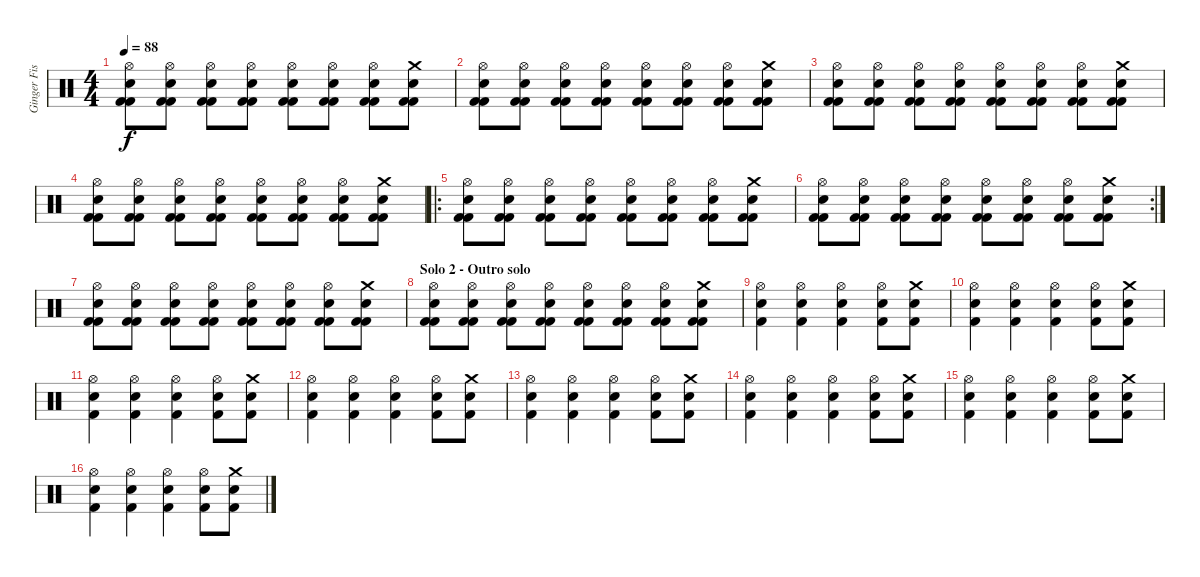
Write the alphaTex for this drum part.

\track ("Ginger Fish (Drums)" "Ginger Fis") {instrument percussion}
\staff {score}
\articulation defaults
\ts (4 4)
\tempo 88
\clef neutral
\ks c
("Hi-Hat (open)" "Snare (hit) 2" "Kick (hit) 2" "Kick (hit) 2").8{dy f} ("Hi-Hat (open)" "Electric Snare (hit)" "Kick (hit) 2" "Kick (hit) 2").8 ("Hi-Hat (open)" "Snare (hit) 2" "Kick (hit) 2" "Kick (hit) 2").8 ("Hi-Hat (open)" "Electric Snare (hit)" "Kick (hit) 2" "Kick (hit) 2").8 ("Hi-Hat (open)" "Snare (hit) 2" "Kick (hit) 2" "Kick (hit) 2").8 ("Hi-Hat (open)" "Electric Snare (hit)" "Kick (hit) 2" "Kick (hit) 2").8 ("Hi-Hat (open)" "Snare (hit) 2" "Kick (hit) 2" "Kick (hit) 2").8 ("Crash medium (hit)" "Electric Snare (hit)" "Kick (hit) 2" "Kick (hit) 2").8 |
("Hi-Hat (open)" "Snare (hit) 2" "Kick (hit) 2" "Kick (hit) 2").8 ("Hi-Hat (open)" "Electric Snare (hit)" "Kick (hit) 2" "Kick (hit) 2").8 ("Hi-Hat (open)" "Snare (hit) 2" "Kick (hit) 2" "Kick (hit) 2").8 ("Hi-Hat (open)" "Electric Snare (hit)" "Kick (hit) 2" "Kick (hit) 2").8 ("Hi-Hat (open)" "Snare (hit) 2" "Kick (hit) 2" "Kick (hit) 2").8 ("Hi-Hat (open)" "Electric Snare (hit)" "Kick (hit) 2" "Kick (hit) 2").8 ("Hi-Hat (open)" "Snare (hit) 2" "Kick (hit) 2" "Kick (hit) 2").8 ("Crash medium (hit)" "Electric Snare (hit)" "Kick (hit) 2" "Kick (hit) 2").8 |
("Hi-Hat (open)" "Snare (hit) 2" "Kick (hit) 2" "Kick (hit) 2").8 ("Hi-Hat (open)" "Electric Snare (hit)" "Kick (hit) 2" "Kick (hit) 2").8 ("Hi-Hat (open)" "Snare (hit) 2" "Kick (hit) 2" "Kick (hit) 2").8 ("Hi-Hat (open)" "Electric Snare (hit)" "Kick (hit) 2" "Kick (hit) 2").8 ("Hi-Hat (open)" "Snare (hit) 2" "Kick (hit) 2" "Kick (hit) 2").8 ("Hi-Hat (open)" "Electric Snare (hit)" "Kick (hit) 2" "Kick (hit) 2").8 ("Hi-Hat (open)" "Snare (hit) 2" "Kick (hit) 2" "Kick (hit) 2").8 ("Crash medium (hit)" "Electric Snare (hit)" "Kick (hit) 2" "Kick (hit) 2").8 |
("Hi-Hat (open)" "Snare (hit) 2" "Kick (hit) 2" "Kick (hit) 2").8 ("Hi-Hat (open)" "Electric Snare (hit)" "Kick (hit) 2" "Kick (hit) 2").8 ("Hi-Hat (open)" "Snare (hit) 2" "Kick (hit) 2" "Kick (hit) 2").8 ("Hi-Hat (open)" "Electric Snare (hit)" "Kick (hit) 2" "Kick (hit) 2").8 ("Hi-Hat (open)" "Snare (hit) 2" "Kick (hit) 2" "Kick (hit) 2").8 ("Hi-Hat (open)" "Electric Snare (hit)" "Kick (hit) 2" "Kick (hit) 2").8 ("Hi-Hat (open)" "Snare (hit) 2" "Kick (hit) 2" "Kick (hit) 2").8 ("Crash medium (hit)" "Electric Snare (hit)" "Kick (hit) 2" "Kick (hit) 2").8 |
\ro
("Hi-Hat (open)" "Snare (hit) 2" "Kick (hit) 2" "Kick (hit) 2").8 ("Hi-Hat (open)" "Electric Snare (hit)" "Kick (hit) 2" "Kick (hit) 2").8 ("Hi-Hat (open)" "Snare (hit) 2" "Kick (hit) 2" "Kick (hit) 2").8 ("Hi-Hat (open)" "Electric Snare (hit)" "Kick (hit) 2" "Kick (hit) 2").8 ("Hi-Hat (open)" "Snare (hit) 2" "Kick (hit) 2" "Kick (hit) 2").8 ("Hi-Hat (open)" "Electric Snare (hit)" "Kick (hit) 2" "Kick (hit) 2").8 ("Hi-Hat (open)" "Snare (hit) 2" "Kick (hit) 2" "Kick (hit) 2").8 ("Crash medium (hit)" "Electric Snare (hit)" "Kick (hit) 2" "Kick (hit) 2").8 |
\rc 2
("Hi-Hat (open)" "Snare (hit) 2" "Kick (hit) 2" "Kick (hit) 2").8 ("Hi-Hat (open)" "Electric Snare (hit)" "Kick (hit) 2" "Kick (hit) 2").8 ("Hi-Hat (open)" "Snare (hit) 2" "Kick (hit) 2" "Kick (hit) 2").8 ("Hi-Hat (open)" "Electric Snare (hit)" "Kick (hit) 2" "Kick (hit) 2").8 ("Hi-Hat (open)" "Snare (hit) 2" "Kick (hit) 2" "Kick (hit) 2").8 ("Hi-Hat (open)" "Electric Snare (hit)" "Kick (hit) 2" "Kick (hit) 2").8 ("Hi-Hat (open)" "Snare (hit) 2" "Kick (hit) 2" "Kick (hit) 2").8 ("Crash medium (hit)" "Electric Snare (hit)" "Kick (hit) 2" "Kick (hit) 2").8 |
("Hi-Hat (open)" "Snare (hit) 2" "Kick (hit) 2" "Kick (hit) 2").8 ("Hi-Hat (open)" "Electric Snare (hit)" "Kick (hit) 2" "Kick (hit) 2").8 ("Hi-Hat (open)" "Snare (hit) 2" "Kick (hit) 2" "Kick (hit) 2").8 ("Hi-Hat (open)" "Electric Snare (hit)" "Kick (hit) 2" "Kick (hit) 2").8 ("Hi-Hat (open)" "Snare (hit) 2" "Kick (hit) 2" "Kick (hit) 2").8 ("Hi-Hat (open)" "Electric Snare (hit)" "Kick (hit) 2" "Kick (hit) 2").8 ("Hi-Hat (open)" "Snare (hit) 2" "Kick (hit) 2" "Kick (hit) 2").8 ("Crash medium (hit)" "Electric Snare (hit)" "Kick (hit) 2" "Kick (hit) 2").8 |
\section ("" "Solo 2 - Outro solo")
("Hi-Hat (open)" "Snare (hit) 2" "Kick (hit) 2" "Kick (hit) 2").8 ("Hi-Hat (open)" "Electric Snare (hit)" "Kick (hit) 2" "Kick (hit) 2").8 ("Hi-Hat (open)" "Snare (hit) 2" "Kick (hit) 2" "Kick (hit) 2").8 ("Hi-Hat (open)" "Electric Snare (hit)" "Kick (hit) 2" "Kick (hit) 2").8 ("Hi-Hat (open)" "Snare (hit) 2" "Kick (hit) 2" "Kick (hit) 2").8 ("Hi-Hat (open)" "Electric Snare (hit)" "Kick (hit) 2" "Kick (hit) 2").8 ("Hi-Hat (open)" "Snare (hit) 2" "Kick (hit) 2" "Kick (hit) 2").8 ("Crash medium (hit)" "Electric Snare (hit)" "Kick (hit) 2" "Kick (hit) 2").8 |
("Hi-Hat (open)" "Snare (hit) 2" "Kick (hit) 2").4 ("Hi-Hat (open)" "Snare (hit) 2" "Kick (hit) 2").4 ("Hi-Hat (open)" "Snare (hit) 2" "Kick (hit) 2").4 ("Hi-Hat (open)" "Snare (hit) 2" "Kick (hit) 2").8 ("Crash medium (hit)" "Electric Snare (hit)" "Kick (hit) 2").8 |
("Hi-Hat (open)" "Snare (hit) 2" "Kick (hit) 2").4 ("Hi-Hat (open)" "Snare (hit) 2" "Kick (hit) 2").4 ("Hi-Hat (open)" "Snare (hit) 2" "Kick (hit) 2").4 ("Hi-Hat (open)" "Snare (hit) 2" "Kick (hit) 2").8 ("Crash medium (hit)" "Electric Snare (hit)" "Kick (hit) 2").8 |
("Hi-Hat (open)" "Snare (hit) 2" "Kick (hit) 2").4 ("Hi-Hat (open)" "Snare (hit) 2" "Kick (hit) 2").4 ("Hi-Hat (open)" "Snare (hit) 2" "Kick (hit) 2").4 ("Hi-Hat (open)" "Snare (hit) 2" "Kick (hit) 2").8 ("Crash medium (hit)" "Electric Snare (hit)" "Kick (hit) 2").8 |
("Hi-Hat (open)" "Snare (hit) 2" "Kick (hit) 2").4 ("Hi-Hat (open)" "Snare (hit) 2" "Kick (hit) 2").4 ("Hi-Hat (open)" "Snare (hit) 2" "Kick (hit) 2").4 ("Hi-Hat (open)" "Snare (hit) 2" "Kick (hit) 2").8 ("Crash medium (hit)" "Electric Snare (hit)" "Kick (hit) 2").8 |
("Hi-Hat (open)" "Snare (hit) 2" "Kick (hit) 2").4 ("Hi-Hat (open)" "Snare (hit) 2" "Kick (hit) 2").4 ("Hi-Hat (open)" "Snare (hit) 2" "Kick (hit) 2").4 ("Hi-Hat (open)" "Snare (hit) 2" "Kick (hit) 2").8 ("Crash medium (hit)" "Electric Snare (hit)" "Kick (hit) 2").8 |
("Hi-Hat (open)" "Snare (hit) 2" "Kick (hit) 2").4 ("Hi-Hat (open)" "Snare (hit) 2" "Kick (hit) 2").4 ("Hi-Hat (open)" "Snare (hit) 2" "Kick (hit) 2").4 ("Hi-Hat (open)" "Snare (hit) 2" "Kick (hit) 2").8 ("Crash medium (hit)" "Electric Snare (hit)" "Kick (hit) 2").8 |
("Hi-Hat (open)" "Snare (hit) 2" "Kick (hit) 2").4 ("Hi-Hat (open)" "Snare (hit) 2" "Kick (hit) 2").4 ("Hi-Hat (open)" "Snare (hit) 2" "Kick (hit) 2").4 ("Hi-Hat (open)" "Snare (hit) 2" "Kick (hit) 2").8 ("Crash medium (hit)" "Electric Snare (hit)" "Kick (hit) 2").8 |
("Hi-Hat (open)" "Snare (hit) 2" "Kick (hit) 2").4 ("Hi-Hat (open)" "Snare (hit) 2" "Kick (hit) 2").4 ("Hi-Hat (open)" "Snare (hit) 2" "Kick (hit) 2").4 ("Hi-Hat (open)" "Snare (hit) 2" "Kick (hit) 2").8 ("Crash medium (hit)" "Electric Snare (hit)" "Kick (hit) 2").8
